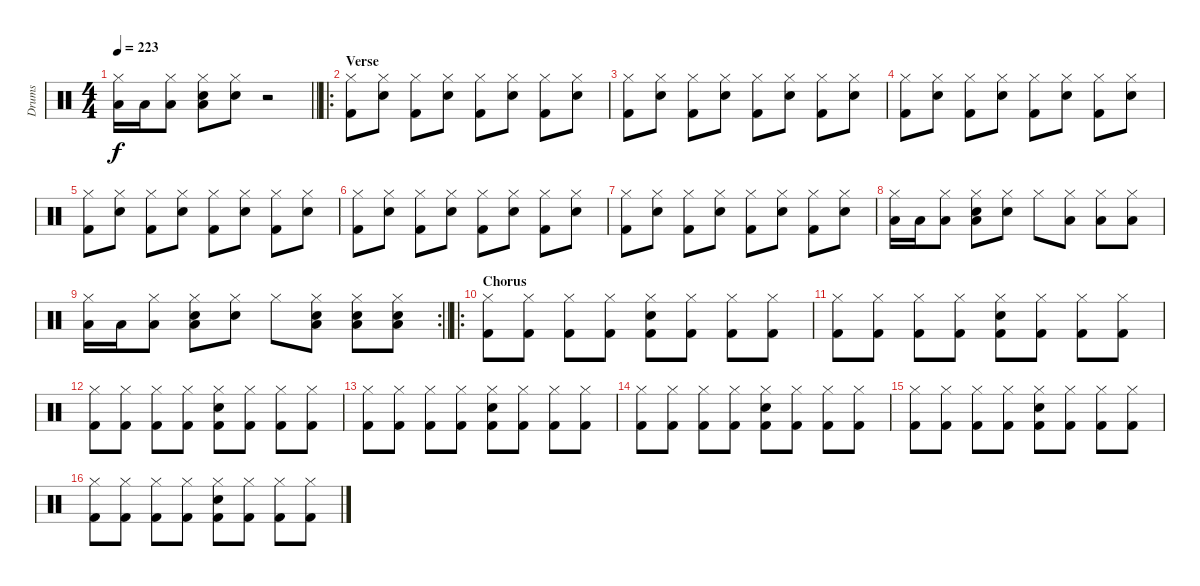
\track ("Drums" "Drums") {instrument percussion}
\staff {score}
\articulation defaults
\ts (4 4)
\tempo 223
\clef neutral
\barLineRight lightlight
\ks c
("Hi-Hat (closed)" "Low Tom (hit)").16{dy f} "Low Tom (hit)".16 ("Hi-Hat (closed)" "Low Tom (hit)").8 ("Hi-Hat (closed)" "Low Tom (hit)" "Snare (hit) 2").8 ("Hi-Hat (closed)" "Snare (hit) 2").8 r.2 |
\ro
\section ("" "Verse")
("Hi-Hat (closed)" "Kick (hit) 2").8 ("Hi-Hat (closed)" "Snare (hit) 2").8 ("Hi-Hat (closed)" "Kick (hit) 2").8 ("Hi-Hat (closed)" "Snare (hit) 2").8 ("Hi-Hat (closed)" "Kick (hit) 2").8 ("Hi-Hat (closed)" "Snare (hit) 2").8 ("Hi-Hat (closed)" "Kick (hit) 2").8 ("Hi-Hat (closed)" "Snare (hit) 2").8 |
("Hi-Hat (closed)" "Kick (hit) 2").8 ("Hi-Hat (closed)" "Snare (hit) 2").8 ("Hi-Hat (closed)" "Kick (hit) 2").8 ("Hi-Hat (closed)" "Snare (hit) 2").8 ("Hi-Hat (closed)" "Kick (hit) 2").8 ("Hi-Hat (closed)" "Snare (hit) 2").8 ("Hi-Hat (closed)" "Kick (hit) 2").8 ("Hi-Hat (closed)" "Snare (hit) 2").8 |
("Hi-Hat (closed)" "Kick (hit) 2").8 ("Hi-Hat (closed)" "Snare (hit) 2").8 ("Hi-Hat (closed)" "Kick (hit) 2").8 ("Hi-Hat (closed)" "Snare (hit) 2").8 ("Hi-Hat (closed)" "Kick (hit) 2").8 ("Hi-Hat (closed)" "Snare (hit) 2").8 ("Hi-Hat (closed)" "Kick (hit) 2").8 ("Hi-Hat (closed)" "Snare (hit) 2").8 |
("Hi-Hat (closed)" "Kick (hit) 2").8 ("Hi-Hat (closed)" "Snare (hit) 2").8 ("Hi-Hat (closed)" "Kick (hit) 2").8 ("Hi-Hat (closed)" "Snare (hit) 2").8 ("Hi-Hat (closed)" "Kick (hit) 2").8 ("Hi-Hat (closed)" "Snare (hit) 2").8 ("Hi-Hat (closed)" "Kick (hit) 2").8 ("Hi-Hat (closed)" "Snare (hit) 2").8 |
("Hi-Hat (closed)" "Kick (hit) 2").8 ("Hi-Hat (closed)" "Snare (hit) 2").8 ("Hi-Hat (closed)" "Kick (hit) 2").8 ("Hi-Hat (closed)" "Snare (hit) 2").8 ("Hi-Hat (closed)" "Kick (hit) 2").8 ("Hi-Hat (closed)" "Snare (hit) 2").8 ("Hi-Hat (closed)" "Kick (hit) 2").8 ("Hi-Hat (closed)" "Snare (hit) 2").8 |
("Hi-Hat (closed)" "Kick (hit) 2").8 ("Hi-Hat (closed)" "Snare (hit) 2").8 ("Hi-Hat (closed)" "Kick (hit) 2").8 ("Hi-Hat (closed)" "Snare (hit) 2").8 ("Hi-Hat (closed)" "Kick (hit) 2").8 ("Hi-Hat (closed)" "Snare (hit) 2").8 ("Hi-Hat (closed)" "Kick (hit) 2").8 ("Hi-Hat (closed)" "Snare (hit) 2").8 |
("Hi-Hat (closed)" "Low Tom (hit)").16 "Low Tom (hit)".16 ("Hi-Hat (closed)" "Low Tom (hit)").8 ("Hi-Hat (closed)" "Low Tom (hit)" "Snare (hit) 2").8 ("Hi-Hat (closed)" "Snare (hit) 2").8 "Hi-Hat (closed)".8 ("Hi-Hat (closed)" "Low Tom (hit)").8 ("Hi-Hat (closed)" "Low Tom (hit)").8 ("Hi-Hat (closed)" "Low Tom (hit)").8 |
\rc 2
\barLineRight lightlight
("Hi-Hat (closed)" "Low Tom (hit)").16 "Low Tom (hit)".16 ("Hi-Hat (closed)" "Low Tom (hit)").8 ("Hi-Hat (closed)" "Low Tom (hit)" "Snare (hit) 2").8 ("Hi-Hat (closed)" "Snare (hit) 2").8 "Hi-Hat (closed)".8 ("Hi-Hat (closed)" "Low Tom (hit)" "Snare (hit) 2").8 ("Hi-Hat (closed)" "Low Tom (hit)" "Snare (hit) 2").8 ("Hi-Hat (closed)" "Low Tom (hit)" "Snare (hit) 2").8 |
\ro
\section ("" "Chorus")
("Hi-Hat (closed)" "Kick (hit) 2").8 ("Hi-Hat (closed)" "Kick (hit) 2").8 ("Hi-Hat (closed)" "Kick (hit) 2").8 ("Hi-Hat (closed)" "Kick (hit) 2").8 ("Hi-Hat (closed)" "Snare (hit) 2" "Kick (hit) 2").8 ("Hi-Hat (closed)" "Kick (hit) 2").8 ("Hi-Hat (closed)" "Kick (hit) 2").8 ("Hi-Hat (closed)" "Kick (hit) 2").8 |
("Hi-Hat (closed)" "Kick (hit) 2").8 ("Hi-Hat (closed)" "Kick (hit) 2").8 ("Hi-Hat (closed)" "Kick (hit) 2").8 ("Hi-Hat (closed)" "Kick (hit) 2").8 ("Hi-Hat (closed)" "Snare (hit) 2" "Kick (hit) 2").8 ("Hi-Hat (closed)" "Kick (hit) 2").8 ("Hi-Hat (closed)" "Kick (hit) 2").8 ("Hi-Hat (closed)" "Kick (hit) 2").8 |
("Hi-Hat (closed)" "Kick (hit) 2").8 ("Hi-Hat (closed)" "Kick (hit) 2").8 ("Hi-Hat (closed)" "Kick (hit) 2").8 ("Hi-Hat (closed)" "Kick (hit) 2").8 ("Hi-Hat (closed)" "Snare (hit) 2" "Kick (hit) 2").8 ("Hi-Hat (closed)" "Kick (hit) 2").8 ("Hi-Hat (closed)" "Kick (hit) 2").8 ("Hi-Hat (closed)" "Kick (hit) 2").8 |
("Hi-Hat (closed)" "Kick (hit) 2").8 ("Hi-Hat (closed)" "Kick (hit) 2").8 ("Hi-Hat (closed)" "Kick (hit) 2").8 ("Hi-Hat (closed)" "Kick (hit) 2").8 ("Hi-Hat (closed)" "Snare (hit) 2" "Kick (hit) 2").8 ("Hi-Hat (closed)" "Kick (hit) 2").8 ("Hi-Hat (closed)" "Kick (hit) 2").8 ("Hi-Hat (closed)" "Kick (hit) 2").8 |
("Hi-Hat (closed)" "Kick (hit) 2").8 ("Hi-Hat (closed)" "Kick (hit) 2").8 ("Hi-Hat (closed)" "Kick (hit) 2").8 ("Hi-Hat (closed)" "Kick (hit) 2").8 ("Hi-Hat (closed)" "Snare (hit) 2" "Kick (hit) 2").8 ("Hi-Hat (closed)" "Kick (hit) 2").8 ("Hi-Hat (closed)" "Kick (hit) 2").8 ("Hi-Hat (closed)" "Kick (hit) 2").8 |
("Hi-Hat (closed)" "Kick (hit) 2").8 ("Hi-Hat (closed)" "Kick (hit) 2").8 ("Hi-Hat (closed)" "Kick (hit) 2").8 ("Hi-Hat (closed)" "Kick (hit) 2").8 ("Hi-Hat (closed)" "Snare (hit) 2" "Kick (hit) 2").8 ("Hi-Hat (closed)" "Kick (hit) 2").8 ("Hi-Hat (closed)" "Kick (hit) 2").8 ("Hi-Hat (closed)" "Kick (hit) 2").8 |
("Hi-Hat (closed)" "Kick (hit) 2").8 ("Hi-Hat (closed)" "Kick (hit) 2").8 ("Hi-Hat (closed)" "Kick (hit) 2").8 ("Hi-Hat (closed)" "Kick (hit) 2").8 ("Hi-Hat (closed)" "Snare (hit) 2" "Kick (hit) 2").8 ("Hi-Hat (closed)" "Kick (hit) 2").8 ("Hi-Hat (closed)" "Kick (hit) 2").8 ("Hi-Hat (closed)" "Kick (hit) 2").8
